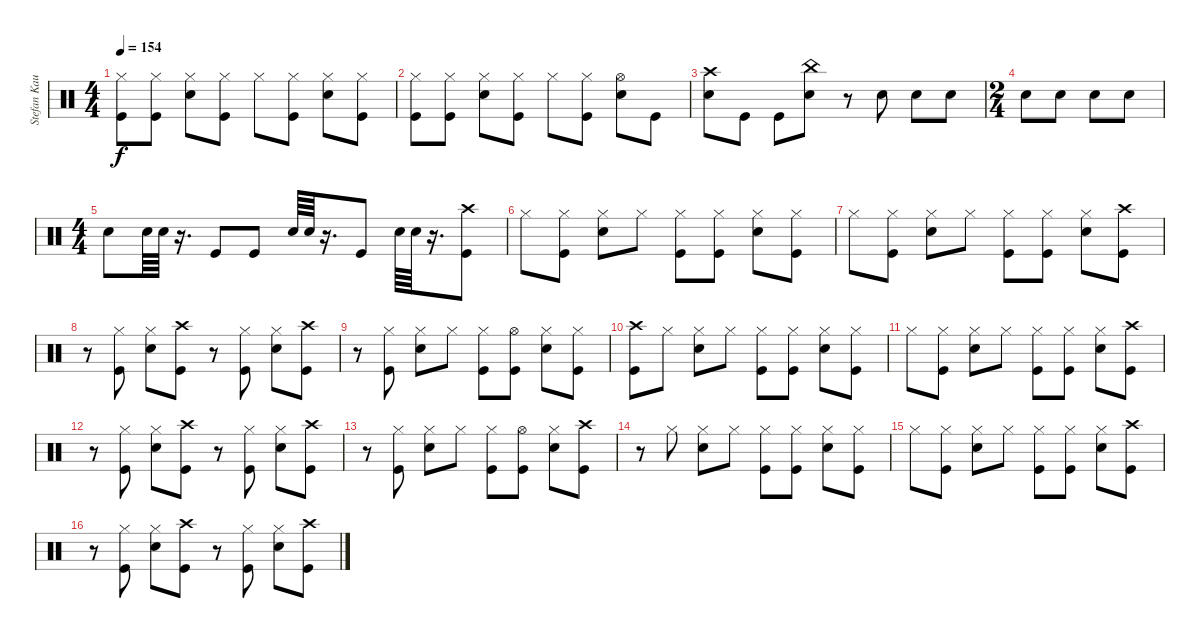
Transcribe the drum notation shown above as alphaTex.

\track ("Stefan Kaufmann" "Stefan Kau") {instrument percussion}
\staff {score}
\articulation defaults
\ts (4 4)
\tempo 154
\clef neutral
\ks c
("Hi-Hat (closed)" "Kick (hit)").8{dy f} ("Hi-Hat (closed)" "Kick (hit)").8 ("Hi-Hat (closed)" "Snare (hit) 2").8 ("Hi-Hat (closed)" "Kick (hit)").8 "Hi-Hat (closed)".8 ("Hi-Hat (closed)" "Kick (hit)").8 ("Hi-Hat (closed)" "Snare (hit) 2").8 ("Hi-Hat (closed)" "Kick (hit)").8 |
("Hi-Hat (closed)" "Kick (hit)").8 ("Hi-Hat (closed)" "Kick (hit)").8 ("Hi-Hat (closed)" "Snare (hit) 2").8 ("Hi-Hat (closed)" "Kick (hit)").8 "Hi-Hat (closed)".8 ("Hi-Hat (closed)" "Kick (hit)").8 ("Hi-Hat (open)" "Snare (hit) 2").8 "Kick (hit)".8 |
("Crash high (hit)" "Snare (hit) 2").8 "Kick (hit)".8 "Kick (hit)".8 ("China (hit)" "Snare (hit) 2").8 r.8 "Snare (hit) 2".8 "Snare (hit) 2".8 "Snare (hit) 2".8 |
\ts (2 4)
"Snare (hit) 2".8 "Snare (hit) 2".8 "Snare (hit) 2".8 "Snare (hit) 2".8 |
\ts (4 4)
"Snare (hit) 2".8 "Snare (hit) 2".64 "Snare (hit) 2".64 r.16{d} "Kick (hit)".8 "Kick (hit)".8 "Snare (hit) 2".64 "Snare (hit) 2".64 r.16{d} "Kick (hit)".8 "Snare (hit) 2".64 "Snare (hit) 2".64 r.16{d} ("Crash high (hit)" "Kick (hit)").8 |
"Hi-Hat (closed)".8 ("Hi-Hat (closed)" "Kick (hit)").8 ("Hi-Hat (closed)" "Snare (hit) 2").8 "Hi-Hat (closed)".8 ("Hi-Hat (closed)" "Kick (hit)").8 ("Hi-Hat (closed)" "Kick (hit)").8 ("Hi-Hat (closed)" "Snare (hit) 2").8 ("Hi-Hat (closed)" "Kick (hit)").8 |
"Hi-Hat (closed)".8 ("Hi-Hat (closed)" "Kick (hit)").8 ("Hi-Hat (closed)" "Snare (hit) 2").8 "Hi-Hat (closed)".8 ("Hi-Hat (closed)" "Kick (hit)").8 ("Hi-Hat (closed)" "Kick (hit)").8 ("Hi-Hat (closed)" "Snare (hit) 2").8 ("Crash high (hit)" "Kick (hit)").8 |
r.8 ("Hi-Hat (closed)" "Kick (hit)").8 ("Hi-Hat (closed)" "Snare (hit) 2").8 ("Crash high (hit)" "Kick (hit)").8 r.8 ("Hi-Hat (closed)" "Kick (hit)").8 ("Hi-Hat (closed)" "Snare (hit) 2").8 ("Crash high (hit)" "Kick (hit)").8 |
r.8 ("Hi-Hat (closed)" "Kick (hit)").8 ("Hi-Hat (closed)" "Snare (hit) 2").8 "Hi-Hat (closed)".8 ("Hi-Hat (closed)" "Kick (hit)").8 ("Hi-Hat (open)" "Kick (hit)").8 ("Hi-Hat (closed)" "Snare (hit) 2").8 ("Hi-Hat (closed)" "Kick (hit)").8 |
("Crash high (hit)" "Kick (hit)").8 "Hi-Hat (closed)".8 ("Hi-Hat (closed)" "Snare (hit) 2").8 "Hi-Hat (closed)".8 ("Hi-Hat (closed)" "Kick (hit)").8 ("Hi-Hat (closed)" "Kick (hit)").8 ("Hi-Hat (closed)" "Snare (hit) 2").8 ("Hi-Hat (closed)" "Kick (hit)").8 |
"Hi-Hat (closed)".8 ("Hi-Hat (closed)" "Kick (hit)").8 ("Hi-Hat (closed)" "Snare (hit) 2").8 "Hi-Hat (closed)".8 ("Hi-Hat (closed)" "Kick (hit)").8 ("Hi-Hat (closed)" "Kick (hit)").8 ("Hi-Hat (closed)" "Snare (hit) 2").8 ("Crash high (hit)" "Kick (hit)").8 |
r.8 ("Hi-Hat (closed)" "Kick (hit)").8 ("Hi-Hat (closed)" "Snare (hit) 2").8 ("Crash high (hit)" "Kick (hit)").8 r.8 ("Hi-Hat (closed)" "Kick (hit)").8 ("Hi-Hat (closed)" "Snare (hit) 2").8 ("Crash high (hit)" "Kick (hit)").8 |
r.8 ("Hi-Hat (closed)" "Kick (hit)").8 ("Hi-Hat (closed)" "Snare (hit) 2").8 "Hi-Hat (closed)".8 ("Hi-Hat (closed)" "Kick (hit)").8 ("Hi-Hat (open)" "Kick (hit)").8 ("Hi-Hat (closed)" "Snare (hit) 2").8 ("Crash high (hit)" "Kick (hit)").8 |
r.8 "Hi-Hat (closed)".8 ("Hi-Hat (closed)" "Snare (hit) 2").8 "Hi-Hat (closed)".8 ("Hi-Hat (closed)" "Kick (hit)").8 ("Hi-Hat (closed)" "Kick (hit)").8 ("Hi-Hat (closed)" "Snare (hit) 2").8 ("Hi-Hat (closed)" "Kick (hit)").8 |
"Hi-Hat (closed)".8 ("Hi-Hat (closed)" "Kick (hit)").8 ("Hi-Hat (closed)" "Snare (hit) 2").8 "Hi-Hat (closed)".8 ("Hi-Hat (closed)" "Kick (hit)").8 ("Hi-Hat (closed)" "Kick (hit)").8 ("Hi-Hat (closed)" "Snare (hit) 2").8 ("Crash high (hit)" "Kick (hit)").8 |
r.8 ("Hi-Hat (closed)" "Kick (hit)").8 ("Hi-Hat (closed)" "Snare (hit) 2").8 ("Crash high (hit)" "Kick (hit)").8 r.8 ("Hi-Hat (closed)" "Kick (hit)").8 ("Hi-Hat (closed)" "Snare (hit) 2").8 ("Crash high (hit)" "Kick (hit)").8
